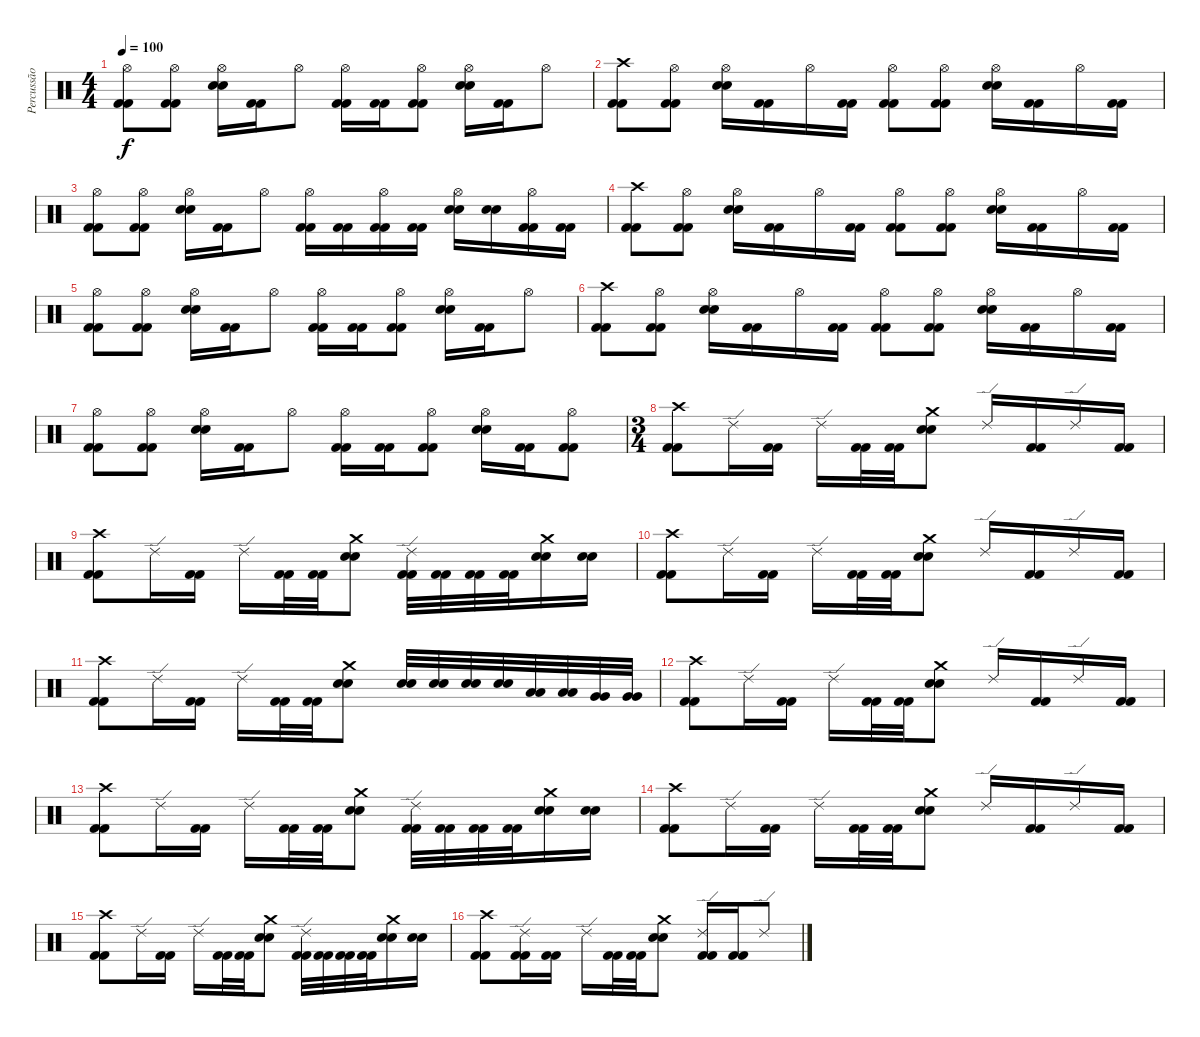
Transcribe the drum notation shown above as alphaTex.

\track ("Percussão" "Percussão") {instrument percussion}
\staff {score}
\articulation defaults
\ts (4 4)
\tempo 100
\clef neutral
\ks c
("Hi-Hat (open)" "Kick (hit) 2" "Kick (hit) 2").8{dy f} ("Hi-Hat (open)" "Kick (hit) 2" "Kick (hit) 2").8 ("Hi-Hat (open)" "Electric Snare (hit)" "Electric Snare (hit)").16 ("Kick (hit) 2" "Kick (hit) 2").16 "Hi-Hat (open)".8 ("Hi-Hat (open)" "Kick (hit) 2" "Kick (hit) 2").16 ("Kick (hit) 2" "Kick (hit) 2").16 ("Hi-Hat (open)" "Kick (hit) 2" "Kick (hit) 2").8 ("Hi-Hat (open)" "Electric Snare (hit)" "Electric Snare (hit)").16 ("Kick (hit) 2" "Kick (hit) 2").16 "Hi-Hat (open)".8 |
("Crash high (hit)" "Kick (hit) 2" "Kick (hit) 2").8 ("Hi-Hat (open)" "Kick (hit) 2" "Kick (hit) 2").8 ("Hi-Hat (open)" "Electric Snare (hit)" "Electric Snare (hit)").16 ("Kick (hit) 2" "Kick (hit) 2").16 "Hi-Hat (open)".16 ("Kick (hit) 2" "Kick (hit) 2").16 ("Hi-Hat (open)" "Kick (hit) 2" "Kick (hit) 2").8 ("Hi-Hat (open)" "Kick (hit) 2" "Kick (hit) 2").8 ("Hi-Hat (open)" "Electric Snare (hit)" "Electric Snare (hit)").16 ("Kick (hit) 2" "Kick (hit) 2").16 "Hi-Hat (open)".16 ("Kick (hit) 2" "Kick (hit) 2").16 |
("Hi-Hat (open)" "Kick (hit) 2" "Kick (hit) 2").8 ("Hi-Hat (open)" "Kick (hit) 2" "Kick (hit) 2").8 ("Hi-Hat (open)" "Electric Snare (hit)" "Electric Snare (hit)").16 ("Kick (hit) 2" "Kick (hit) 2").16 "Hi-Hat (open)".8 ("Hi-Hat (open)" "Kick (hit) 2" "Kick (hit) 2").16 ("Kick (hit) 2" "Kick (hit) 2").16 ("Hi-Hat (open)" "Kick (hit) 2" "Kick (hit) 2").16 ("Kick (hit) 2" "Kick (hit) 2").16 ("Hi-Hat (open)" "Electric Snare (hit)" "Electric Snare (hit)").16 ("Electric Snare (hit)" "Electric Snare (hit)").16 ("Hi-Hat (open)" "Kick (hit) 2" "Kick (hit) 2").16 ("Kick (hit) 2" "Kick (hit) 2").16 |
("Crash high (hit)" "Kick (hit) 2" "Kick (hit) 2").8 ("Hi-Hat (open)" "Kick (hit) 2" "Kick (hit) 2").8 ("Hi-Hat (open)" "Electric Snare (hit)" "Electric Snare (hit)").16 ("Kick (hit) 2" "Kick (hit) 2").16 "Hi-Hat (open)".16 ("Kick (hit) 2" "Kick (hit) 2").16 ("Hi-Hat (open)" "Kick (hit) 2" "Kick (hit) 2").8 ("Hi-Hat (open)" "Kick (hit) 2" "Kick (hit) 2").8 ("Hi-Hat (open)" "Electric Snare (hit)" "Electric Snare (hit)").16 ("Kick (hit) 2" "Kick (hit) 2").16 "Hi-Hat (open)".16 ("Kick (hit) 2" "Kick (hit) 2").16 |
("Hi-Hat (open)" "Kick (hit) 2" "Kick (hit) 2").8 ("Hi-Hat (open)" "Kick (hit) 2" "Kick (hit) 2").8 ("Hi-Hat (open)" "Electric Snare (hit)" "Electric Snare (hit)").16 ("Kick (hit) 2" "Kick (hit) 2").16 "Hi-Hat (open)".8 ("Hi-Hat (open)" "Kick (hit) 2" "Kick (hit) 2").16 ("Kick (hit) 2" "Kick (hit) 2").16 ("Hi-Hat (open)" "Kick (hit) 2" "Kick (hit) 2").8 ("Hi-Hat (open)" "Electric Snare (hit)" "Electric Snare (hit)").16 ("Kick (hit) 2" "Kick (hit) 2").16 "Hi-Hat (open)".8 |
("Crash high (hit)" "Kick (hit) 2" "Kick (hit) 2").8 ("Hi-Hat (open)" "Kick (hit) 2" "Kick (hit) 2").8 ("Hi-Hat (open)" "Electric Snare (hit)" "Electric Snare (hit)").16 ("Kick (hit) 2" "Kick (hit) 2").16 "Hi-Hat (open)".16 ("Kick (hit) 2" "Kick (hit) 2").16 ("Hi-Hat (open)" "Kick (hit) 2" "Kick (hit) 2").8 ("Hi-Hat (open)" "Kick (hit) 2" "Kick (hit) 2").8 ("Hi-Hat (open)" "Electric Snare (hit)" "Electric Snare (hit)").16 ("Kick (hit) 2" "Kick (hit) 2").16 "Hi-Hat (open)".16 ("Kick (hit) 2" "Kick (hit) 2").16 |
("Hi-Hat (open)" "Kick (hit) 2" "Kick (hit) 2").8 ("Hi-Hat (open)" "Kick (hit) 2" "Kick (hit) 2").8 ("Hi-Hat (open)" "Electric Snare (hit)" "Electric Snare (hit)").16 ("Kick (hit) 2" "Kick (hit) 2").16 "Hi-Hat (open)".8 ("Hi-Hat (open)" "Kick (hit) 2" "Kick (hit) 2").16 ("Kick (hit) 2" "Kick (hit) 2").16 ("Hi-Hat (open)" "Kick (hit) 2" "Kick (hit) 2").8 ("Hi-Hat (open)" "Electric Snare (hit)" "Electric Snare (hit)").16 ("Kick (hit) 2" "Kick (hit) 2").16 ("Hi-Hat (open)" "Kick (hit) 2" "Kick (hit) 2").8 |
\ts (3 4)
("Crash high (hit)" "Kick (hit) 2" "Kick (hit) 2").8 "Ride (edge) 2".16 ("Kick (hit) 2" "Kick (hit) 2").16 "Ride (edge) 2".16 ("Kick (hit) 2" "Kick (hit) 2").32 ("Kick (hit) 2" "Kick (hit) 2").32 ("Crash medium (hit)" "Electric Snare (hit)" "Electric Snare (hit)").8 "Ride (edge) 2".16 ("Kick (hit) 2" "Kick (hit) 2").16 "Ride (edge) 2".16 ("Kick (hit) 2" "Kick (hit) 2").16 |
("Crash high (hit)" "Kick (hit) 2" "Kick (hit) 2").8 "Ride (edge) 2".16 ("Kick (hit) 2" "Kick (hit) 2").16 "Ride (edge) 2".16 ("Kick (hit) 2" "Kick (hit) 2").32 ("Kick (hit) 2" "Kick (hit) 2").32 ("Crash medium (hit)" "Electric Snare (hit)" "Electric Snare (hit)").8 ("Ride (edge) 2" "Kick (hit) 2" "Kick (hit) 2").32 ("Kick (hit) 2" "Kick (hit) 2").32 ("Kick (hit) 2" "Kick (hit) 2").32 ("Kick (hit) 2" "Kick (hit) 2").32 ("Crash medium (hit)" "Electric Snare (hit)" "Electric Snare (hit)").16 ("Electric Snare (hit)" "Electric Snare (hit)").16 |
("Crash high (hit)" "Kick (hit) 2" "Kick (hit) 2").8 "Ride (edge) 2".16 ("Kick (hit) 2" "Kick (hit) 2").16 "Ride (edge) 2".16 ("Kick (hit) 2" "Kick (hit) 2").32 ("Kick (hit) 2" "Kick (hit) 2").32 ("Crash medium (hit)" "Electric Snare (hit)" "Electric Snare (hit)").8 "Ride (edge) 2".16 ("Kick (hit) 2" "Kick (hit) 2").16 "Ride (edge) 2".16 ("Kick (hit) 2" "Kick (hit) 2").16 |
("Crash high (hit)" "Kick (hit) 2" "Kick (hit) 2").8 "Ride (edge) 2".16 ("Kick (hit) 2" "Kick (hit) 2").16 "Ride (edge) 2".16 ("Kick (hit) 2" "Kick (hit) 2").32 ("Kick (hit) 2" "Kick (hit) 2").32 ("Crash medium (hit)" "Electric Snare (hit)" "Electric Snare (hit)").8 ("Electric Snare (hit)" "Electric Snare (hit)").32 ("Electric Snare (hit)" "Electric Snare (hit)").32 ("Electric Snare (hit)" "Electric Snare (hit)").32 ("Electric Snare (hit)" "Electric Snare (hit)").32 ("Low Tom (hit)" "Low Tom (hit)").32 ("Low Tom (hit)" "Low Tom (hit)").32 ("Very Low Tom (hit)" "Very Low Tom (hit)").32 ("Very Low Tom (hit)" "Very Low Tom (hit)").32 |
("Crash high (hit)" "Kick (hit) 2" "Kick (hit) 2").8 "Ride (edge) 2".16 ("Kick (hit) 2" "Kick (hit) 2").16 "Ride (edge) 2".16 ("Kick (hit) 2" "Kick (hit) 2").32 ("Kick (hit) 2" "Kick (hit) 2").32 ("Crash medium (hit)" "Electric Snare (hit)" "Electric Snare (hit)").8 "Ride (edge) 2".16 ("Kick (hit) 2" "Kick (hit) 2").16 "Ride (edge) 2".16 ("Kick (hit) 2" "Kick (hit) 2").16 |
("Crash high (hit)" "Kick (hit) 2" "Kick (hit) 2").8 "Ride (edge) 2".16 ("Kick (hit) 2" "Kick (hit) 2").16 "Ride (edge) 2".16 ("Kick (hit) 2" "Kick (hit) 2").32 ("Kick (hit) 2" "Kick (hit) 2").32 ("Crash medium (hit)" "Electric Snare (hit)" "Electric Snare (hit)").8 ("Ride (edge) 2" "Kick (hit) 2" "Kick (hit) 2").32 ("Kick (hit) 2" "Kick (hit) 2").32 ("Kick (hit) 2" "Kick (hit) 2").32 ("Kick (hit) 2" "Kick (hit) 2").32 ("Crash medium (hit)" "Electric Snare (hit)" "Electric Snare (hit)").16 ("Electric Snare (hit)" "Electric Snare (hit)").16 |
("Crash high (hit)" "Kick (hit) 2" "Kick (hit) 2").8 "Ride (edge) 2".16 ("Kick (hit) 2" "Kick (hit) 2").16 "Ride (edge) 2".16 ("Kick (hit) 2" "Kick (hit) 2").32 ("Kick (hit) 2" "Kick (hit) 2").32 ("Crash medium (hit)" "Electric Snare (hit)" "Electric Snare (hit)").8 "Ride (edge) 2".16 ("Kick (hit) 2" "Kick (hit) 2").16 "Ride (edge) 2".16 ("Kick (hit) 2" "Kick (hit) 2").16 |
("Crash high (hit)" "Kick (hit) 2" "Kick (hit) 2").8 "Ride (edge) 2".16 ("Kick (hit) 2" "Kick (hit) 2").16 "Ride (edge) 2".16 ("Kick (hit) 2" "Kick (hit) 2").32 ("Kick (hit) 2" "Kick (hit) 2").32 ("Crash medium (hit)" "Electric Snare (hit)" "Electric Snare (hit)").8 ("Ride (edge) 2" "Kick (hit) 2" "Kick (hit) 2").32 ("Kick (hit) 2" "Kick (hit) 2").32 ("Kick (hit) 2" "Kick (hit) 2").32 ("Kick (hit) 2" "Kick (hit) 2").32 ("Crash medium (hit)" "Electric Snare (hit)" "Electric Snare (hit)").16 ("Electric Snare (hit)" "Electric Snare (hit)").16 |
("Crash high (hit)" "Kick (hit) 2" "Kick (hit) 2").8 ("Ride (edge) 2" "Kick (hit) 2" "Kick (hit) 2").16 ("Kick (hit) 2" "Kick (hit) 2").16 "Ride (edge) 2".16 ("Kick (hit) 2" "Kick (hit) 2").32 ("Kick (hit) 2" "Kick (hit) 2").32 ("Crash medium (hit)" "Electric Snare (hit)" "Electric Snare (hit)").8 ("Ride (edge) 2" "Kick (hit) 2" "Kick (hit) 2").16 ("Kick (hit) 2" "Kick (hit) 2").16 "Ride (edge) 2".8
